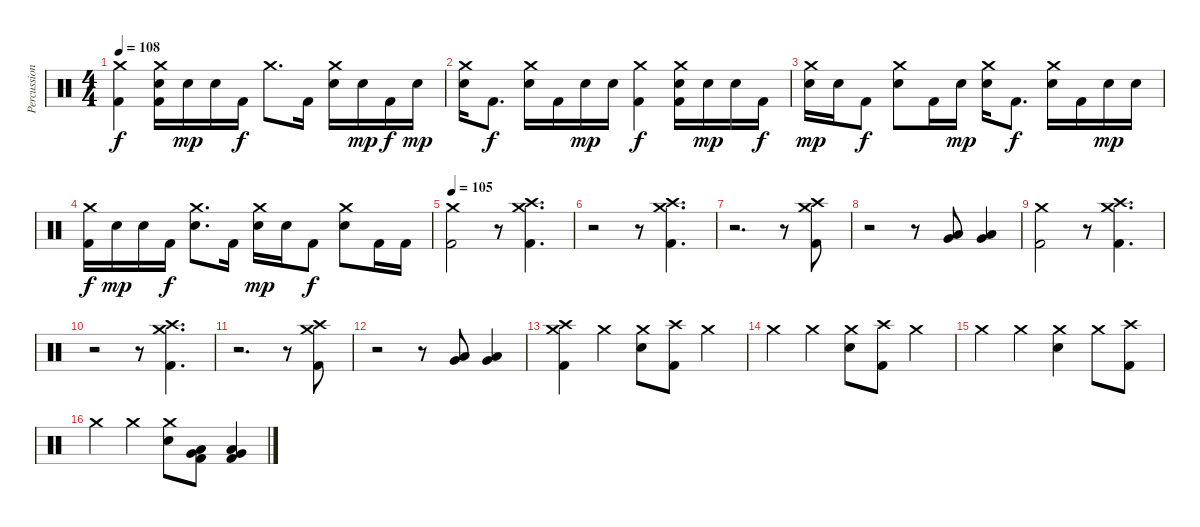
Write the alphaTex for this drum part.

\track ("Percussion" "Percussion") {instrument percussion}
\staff {score}
\articulation defaults
\ts (4 4)
\tempo 108
\clef neutral
\ks c
("Crash medium (hit)" "Kick (hit) 2").4{dy f} ("Crash medium (hit)" "Electric Snare (hit)" "Kick (hit) 2").16 "Electric Snare (hit)".16{dy mp} "Electric Snare (hit)".16 "Kick (hit) 2".16{dy f} "Crash medium (hit)".8{d} "Kick (hit) 2".16 ("Crash medium (hit)" "Electric Snare (hit)").16 "Electric Snare (hit)".16{dy mp} "Kick (hit) 2".16{dy f} "Electric Snare (hit)".16{dy mp} |
("Crash medium (hit)" "Electric Snare (hit)").16 "Kick (hit) 2".8{d dy f} ("Crash medium (hit)" "Electric Snare (hit)").16 "Kick (hit) 2".16 "Electric Snare (hit)".16{dy mp} "Electric Snare (hit)".16 ("Crash medium (hit)" "Kick (hit) 2").4{dy f} ("Crash medium (hit)" "Electric Snare (hit)" "Kick (hit) 2").16 "Electric Snare (hit)".16{dy mp} "Electric Snare (hit)".16 "Kick (hit) 2".16{dy f} |
("Crash medium (hit)" "Electric Snare (hit)").16{dy mp} "Electric Snare (hit)".16 "Kick (hit) 2".8{dy f} ("Crash medium (hit)" "Electric Snare (hit)").8 "Kick (hit) 2".16 "Electric Snare (hit)".16{dy mp} ("Crash medium (hit)" "Electric Snare (hit)").16 "Kick (hit) 2".8{d dy f} ("Crash medium (hit)" "Electric Snare (hit)").16 "Kick (hit) 2".16 "Electric Snare (hit)".16{dy mp} "Electric Snare (hit)".16 |
("Crash medium (hit)" "Kick (hit) 2").16{dy f} "Electric Snare (hit)".16{dy mp} "Electric Snare (hit)".16 "Kick (hit) 2".16{dy f} ("Crash medium (hit)" "Electric Snare (hit)").8{d} "Kick (hit) 2".16 ("Crash medium (hit)" "Electric Snare (hit)").16{dy mp} "Electric Snare (hit)".16 "Kick (hit) 2".8{dy f} ("Crash medium (hit)" "Electric Snare (hit)").8 "Kick (hit) 2".16 "Kick (hit) 2".16 |
\tempo 105
("Crash medium (hit)" "Kick (hit) 2").2 r.8 ("Crash high (hit)" "Crash medium (hit)" "Kick (hit) 2").4{d} |
r.2 r.8 ("Crash high (hit)" "Crash medium (hit)" "Kick (hit) 2").4{d} |
r.2{d} r.8 ("Crash high (hit)" "Crash medium (hit)" "Kick (hit) 2").8 |
r.2 r.8 ("Very Low Tom (hit)" "Low Floor Tom (hit)").8 ("Very Low Tom (hit)" "Low Floor Tom (hit)").4 |
("Crash medium (hit)" "Kick (hit) 2").2 r.8 ("Crash high (hit)" "Crash medium (hit)" "Kick (hit) 2").4{d} |
r.2 r.8 ("Crash high (hit)" "Crash medium (hit)" "Kick (hit) 2").4{d} |
r.2{d} r.8 ("Crash high (hit)" "Crash medium (hit)" "Kick (hit) 2").8 |
r.2 r.8 ("Very Low Tom (hit)" "Low Floor Tom (hit)").8 ("Very Low Tom (hit)" "Low Floor Tom (hit)").4 |
("Crash high (hit)" "Crash medium (hit)" "Kick (hit) 2").4 "Crash medium (hit)".4 ("Crash medium (hit)" "Electric Snare (hit)").8 ("Crash high (hit)" "Kick (hit) 2").8 "Crash medium (hit)".4 |
"Crash medium (hit)".4 "Crash medium (hit)".4 ("Crash medium (hit)" "Electric Snare (hit)").8 ("Crash high (hit)" "Kick (hit) 2").8 "Crash medium (hit)".4 |
"Crash medium (hit)".4 "Crash medium (hit)".4 ("Crash medium (hit)" "Electric Snare (hit)").4 "Crash medium (hit)".8 ("Crash high (hit)" "Kick (hit) 2").8 |
"Crash medium (hit)".4 "Crash medium (hit)".4 ("Crash medium (hit)" "Electric Snare (hit)").8 ("Very Low Tom (hit)" "Low Floor Tom (hit)" "Kick (hit) 2").8 ("Very Low Tom (hit)" "Low Floor Tom (hit)" "Kick (hit) 2").4
